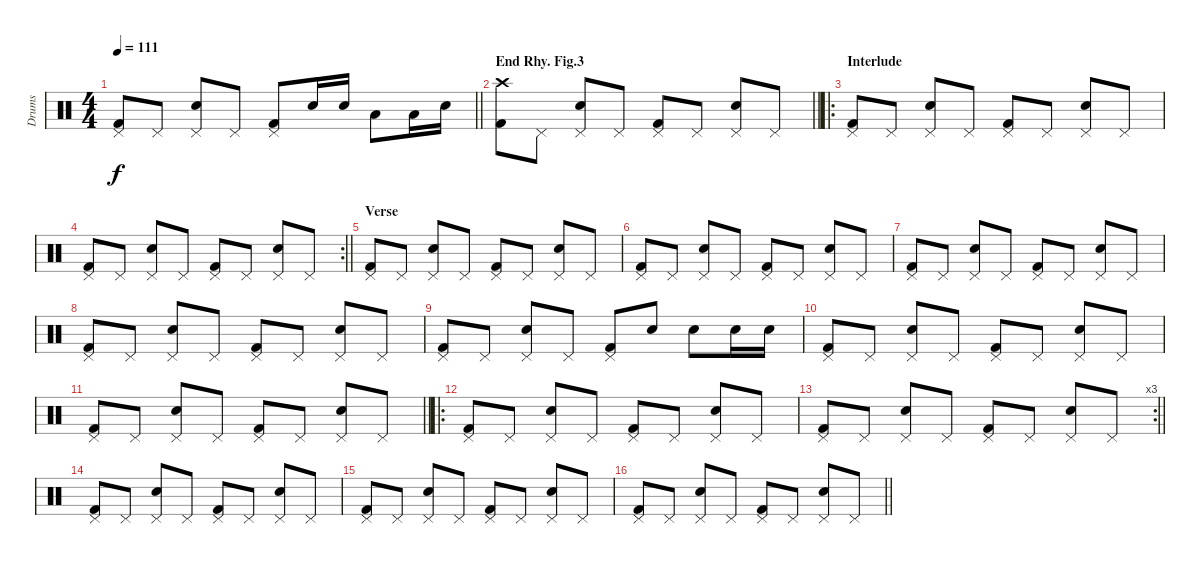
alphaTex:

\track ("Drums" "Drums") {instrument percussion}
\staff {score}
\articulation defaults
\ts (4 4)
\tempo 111
\clef neutral
\barLineRight lightlight
\ks c
("Pedal Hi-Hat (hit)" "Kick (hit) 2").8{dy f} "Pedal Hi-Hat (hit)".8 ("Pedal Hi-Hat (hit)" "Snare (hit) 2").8 "Pedal Hi-Hat (hit)".8 ("Pedal Hi-Hat (hit)" "Kick (hit) 2").8 "Snare (hit) 2".16 "Snare (hit) 2".16 "Low Floor Tom (hit)".8 "Low Tom (hit)".16 "Snare (hit) 2".16 |
\section ("" "End Rhy. Fig.3")
\barLineRight lightlight
("Crash high (hit)" "Kick (hit) 2").8 "Pedal Hi-Hat (hit)".8 ("Pedal Hi-Hat (hit)" "Snare (hit) 2").8 "Pedal Hi-Hat (hit)".8 ("Pedal Hi-Hat (hit)" "Kick (hit) 2").8 "Pedal Hi-Hat (hit)".8 ("Pedal Hi-Hat (hit)" "Snare (hit) 2").8 "Pedal Hi-Hat (hit)".8 |
\ro
\section ("" "Interlude")
("Pedal Hi-Hat (hit)" "Kick (hit) 2").8 "Pedal Hi-Hat (hit)".8 ("Pedal Hi-Hat (hit)" "Snare (hit) 2").8 "Pedal Hi-Hat (hit)".8 ("Pedal Hi-Hat (hit)" "Kick (hit) 2").8 "Pedal Hi-Hat (hit)".8 ("Pedal Hi-Hat (hit)" "Snare (hit) 2").8 "Pedal Hi-Hat (hit)".8 |
\rc 2
\barLineRight lightlight
("Pedal Hi-Hat (hit)" "Kick (hit) 2").8 "Pedal Hi-Hat (hit)".8 ("Pedal Hi-Hat (hit)" "Snare (hit) 2").8 "Pedal Hi-Hat (hit)".8 ("Pedal Hi-Hat (hit)" "Kick (hit) 2").8 "Pedal Hi-Hat (hit)".8 ("Pedal Hi-Hat (hit)" "Snare (hit) 2").8 "Pedal Hi-Hat (hit)".8 |
\section ("" "Verse")
("Pedal Hi-Hat (hit)" "Kick (hit) 2").8 "Pedal Hi-Hat (hit)".8 ("Pedal Hi-Hat (hit)" "Snare (hit) 2").8 "Pedal Hi-Hat (hit)".8 ("Pedal Hi-Hat (hit)" "Kick (hit) 2").8 "Pedal Hi-Hat (hit)".8 ("Pedal Hi-Hat (hit)" "Snare (hit) 2").8 "Pedal Hi-Hat (hit)".8 |
("Pedal Hi-Hat (hit)" "Kick (hit) 2").8 "Pedal Hi-Hat (hit)".8 ("Pedal Hi-Hat (hit)" "Snare (hit) 2").8 "Pedal Hi-Hat (hit)".8 ("Pedal Hi-Hat (hit)" "Kick (hit) 2").8 "Pedal Hi-Hat (hit)".8 ("Pedal Hi-Hat (hit)" "Snare (hit) 2").8 "Pedal Hi-Hat (hit)".8 |
("Pedal Hi-Hat (hit)" "Kick (hit) 2").8 "Pedal Hi-Hat (hit)".8 ("Pedal Hi-Hat (hit)" "Snare (hit) 2").8 "Pedal Hi-Hat (hit)".8 ("Pedal Hi-Hat (hit)" "Kick (hit) 2").8 "Pedal Hi-Hat (hit)".8 ("Pedal Hi-Hat (hit)" "Snare (hit) 2").8 "Pedal Hi-Hat (hit)".8 |
("Pedal Hi-Hat (hit)" "Kick (hit) 2").8 "Pedal Hi-Hat (hit)".8 ("Pedal Hi-Hat (hit)" "Snare (hit) 2").8 "Pedal Hi-Hat (hit)".8 ("Pedal Hi-Hat (hit)" "Kick (hit) 2").8 "Pedal Hi-Hat (hit)".8 ("Pedal Hi-Hat (hit)" "Snare (hit) 2").8 "Pedal Hi-Hat (hit)".8 |
("Pedal Hi-Hat (hit)" "Kick (hit) 2").8 "Pedal Hi-Hat (hit)".8 ("Pedal Hi-Hat (hit)" "Snare (hit) 2").8 "Pedal Hi-Hat (hit)".8 ("Pedal Hi-Hat (hit)" "Kick (hit) 2").8 "Snare (hit) 2".8 "Snare (hit) 2".8 "Snare (hit) 2".16 "Snare (hit) 2".16 |
("Pedal Hi-Hat (hit)" "Kick (hit) 2").8 "Pedal Hi-Hat (hit)".8 ("Pedal Hi-Hat (hit)" "Snare (hit) 2").8 "Pedal Hi-Hat (hit)".8 ("Pedal Hi-Hat (hit)" "Kick (hit) 2").8 "Pedal Hi-Hat (hit)".8 ("Pedal Hi-Hat (hit)" "Snare (hit) 2").8 "Pedal Hi-Hat (hit)".8 |
\barLineRight lightlight
("Pedal Hi-Hat (hit)" "Kick (hit) 2").8 "Pedal Hi-Hat (hit)".8 ("Pedal Hi-Hat (hit)" "Snare (hit) 2").8 "Pedal Hi-Hat (hit)".8 ("Pedal Hi-Hat (hit)" "Kick (hit) 2").8 "Pedal Hi-Hat (hit)".8 ("Pedal Hi-Hat (hit)" "Snare (hit) 2").8 "Pedal Hi-Hat (hit)".8 |
\ro
("Pedal Hi-Hat (hit)" "Kick (hit) 2").8 "Pedal Hi-Hat (hit)".8 ("Pedal Hi-Hat (hit)" "Snare (hit) 2").8 "Pedal Hi-Hat (hit)".8 ("Pedal Hi-Hat (hit)" "Kick (hit) 2").8 "Pedal Hi-Hat (hit)".8 ("Pedal Hi-Hat (hit)" "Snare (hit) 2").8 "Pedal Hi-Hat (hit)".8 |
\rc 3
\barLineRight lightlight
("Pedal Hi-Hat (hit)" "Kick (hit) 2").8 "Pedal Hi-Hat (hit)".8 ("Pedal Hi-Hat (hit)" "Snare (hit) 2").8 "Pedal Hi-Hat (hit)".8 ("Pedal Hi-Hat (hit)" "Kick (hit) 2").8 "Pedal Hi-Hat (hit)".8 ("Pedal Hi-Hat (hit)" "Snare (hit) 2").8 "Pedal Hi-Hat (hit)".8 |
("Pedal Hi-Hat (hit)" "Kick (hit) 2").8 "Pedal Hi-Hat (hit)".8 ("Pedal Hi-Hat (hit)" "Snare (hit) 2").8 "Pedal Hi-Hat (hit)".8 ("Pedal Hi-Hat (hit)" "Kick (hit) 2").8 "Pedal Hi-Hat (hit)".8 ("Pedal Hi-Hat (hit)" "Snare (hit) 2").8 "Pedal Hi-Hat (hit)".8 |
("Pedal Hi-Hat (hit)" "Kick (hit) 2").8 "Pedal Hi-Hat (hit)".8 ("Pedal Hi-Hat (hit)" "Snare (hit) 2").8 "Pedal Hi-Hat (hit)".8 ("Pedal Hi-Hat (hit)" "Kick (hit) 2").8 "Pedal Hi-Hat (hit)".8 ("Pedal Hi-Hat (hit)" "Snare (hit) 2").8 "Pedal Hi-Hat (hit)".8 |
\barLineRight lightlight
("Pedal Hi-Hat (hit)" "Kick (hit) 2").8 "Pedal Hi-Hat (hit)".8 ("Pedal Hi-Hat (hit)" "Snare (hit) 2").8 "Pedal Hi-Hat (hit)".8 ("Pedal Hi-Hat (hit)" "Kick (hit) 2").8 "Pedal Hi-Hat (hit)".8 ("Pedal Hi-Hat (hit)" "Snare (hit) 2").8 "Pedal Hi-Hat (hit)".8
